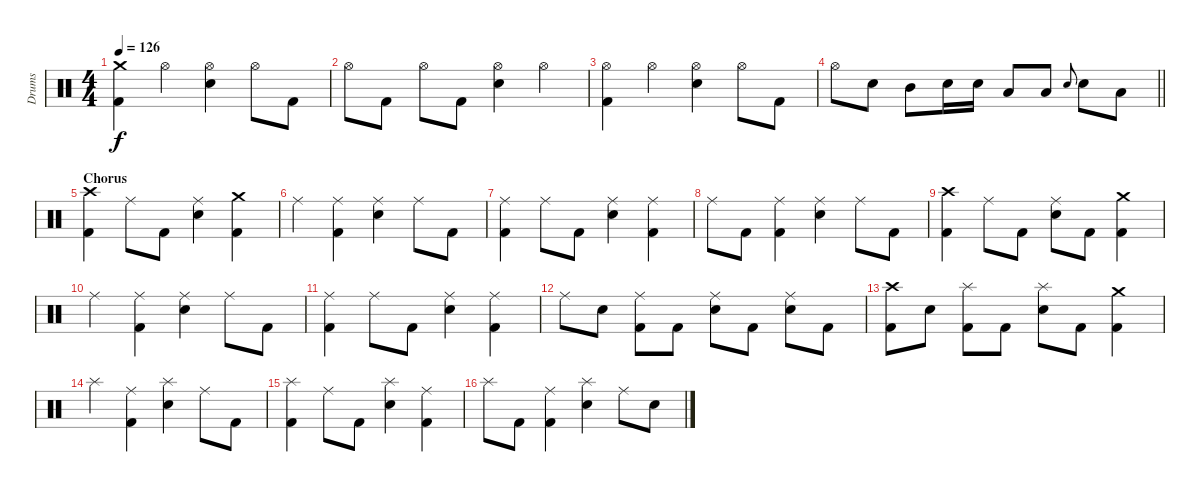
\track ("Drums" "Drums") {instrument percussion}
\staff {score}
\articulation defaults
\ts (4 4)
\tempo 126
\clef neutral
\ks c
("Crash medium (hit)" "Kick (hit) 2").4{dy f} "Hi-Hat (open)".4 ("Hi-Hat (open)" "Snare (hit) 2").4 "Hi-Hat (open)".8 "Kick (hit) 2".8 |
"Hi-Hat (open)".8 "Kick (hit) 2".8 "Hi-Hat (open)".8 "Kick (hit) 2".8 ("Hi-Hat (open)" "Snare (hit) 2").4 "Hi-Hat (open)".4 |
("Hi-Hat (open)" "Kick (hit) 2").4 "Hi-Hat (open)".4 ("Hi-Hat (open)" "Snare (hit) 2").4 "Hi-Hat (open)".8 "Kick (hit) 2".8 |
\barLineRight lightlight "Hi-Hat (open)".8 "Snare (hit) 2".8 "Mid Tom (hit)".8 "Snare (hit) 2".16 "Snare (hit) 2".16 "Low Tom (hit)".8 "Low Tom (hit)".8 "Snare (hit) 2".8{gr onbeat} "Snare (hit) 2".8 "Low Tom (hit)".8
|
\section ("" "Chorus")
("Crash high (hit)" "Kick (hit) 2").4 "Ride (middle)".8 "Kick (hit) 2".8 ("Ride (middle)" "Snare (hit) 2").4 ("Crash medium (hit)" "Kick (hit) 2").4 |
"Ride (middle)".4 ("Ride (middle)" "Kick (hit) 2").4 ("Ride (middle)" "Snare (hit) 2").4 "Ride (middle)".8 "Kick (hit) 2".8 |
("Ride (middle)" "Kick (hit) 2").4 "Ride (middle)".8 "Kick (hit) 2".8 ("Ride (middle)" "Snare (hit) 2").4 ("Ride (middle)" "Kick (hit) 2").4 |
"Ride (middle)".8 "Kick (hit) 2".8 ("Ride (middle)" "Kick (hit) 2").4 ("Ride (middle)" "Snare (hit) 2").4 "Ride (middle)".8 "Kick (hit) 2".8 |
("Crash high (hit)" "Kick (hit) 2").4 "Ride (middle)".8 "Kick (hit) 2".8 ("Ride (middle)" "Snare (hit) 2").8 "Kick (hit) 2".8 ("Crash medium (hit)" "Kick (hit) 2").4 |
"Ride (middle)".4 ("Ride (middle)" "Kick (hit) 2").4 ("Ride (middle)" "Snare (hit) 2").4 "Ride (middle)".8 "Kick (hit) 2".8 |
("Ride (middle)" "Kick (hit) 2").4 "Ride (middle)".8 "Kick (hit) 2".8 ("Ride (middle)" "Snare (hit) 2").4 ("Ride (middle)" "Kick (hit) 2").4 |
"Ride (middle)".8 "Snare (hit) 2".8 ("Ride (middle)" "Kick (hit) 2").8 "Kick (hit) 2".8 ("Ride (middle)" "Snare (hit) 2").8 "Kick (hit) 2".8 ("Ride (middle)" "Snare (hit) 2").8 "Kick (hit) 2".8 |
("Crash high (hit)" "Kick (hit) 2").8 "Snare (hit) 2".8 ("Splash (hit)" "Kick (hit) 2").8 "Kick (hit) 2".8 ("Splash (hit)" "Snare (hit) 2").8 "Kick (hit) 2".8 ("Crash medium (hit)" "Kick (hit) 2").4 |
"Splash (hit)".4 ("Ride (middle)" "Kick (hit) 2").4 ("Splash (hit)" "Snare (hit) 2").4 "Ride (middle)".8 "Kick (hit) 2".8 |
("Splash (hit)" "Kick (hit) 2").4 "Ride (middle)".8 "Kick (hit) 2".8 ("Splash (hit)" "Snare (hit) 2").4 ("Ride (middle)" "Kick (hit) 2").4 |
"Splash (hit)".8 "Kick (hit) 2".8 ("Ride (middle)" "Kick (hit) 2").4 ("Splash (hit)" "Snare (hit) 2").4 "Ride (middle)".8 "Snare (hit) 2".8
